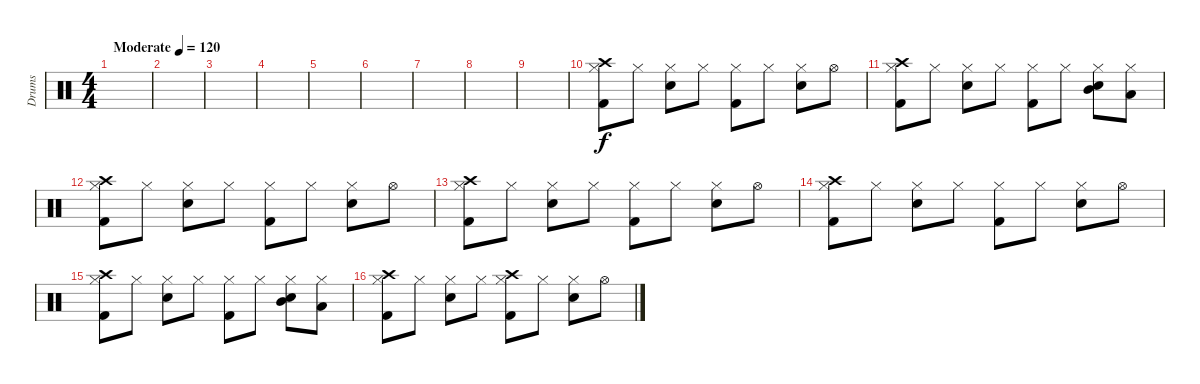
\track ("Drums" "Drums") {instrument percussion}
\staff {score}
\articulation defaults
\ts (4 4)
\tempo (120 "Moderate")
\clef neutral
\ks c
|
|
|
|
|
|
|
|
|
("Kick (hit) 2" "Hi-Hat (closed)" "Crash high (hit)").8 "Hi-Hat (closed)".8 ("Electric Snare (hit)" "Hi-Hat (closed)").8 "Hi-Hat (closed)".8 ("Kick (hit) 2" "Hi-Hat (closed)").8 "Hi-Hat (closed)".8 ("Electric Snare (hit)" "Hi-Hat (closed)").8 "Hi-Hat (open)".8 |
("Kick (hit) 2" "Hi-Hat (closed)" "Crash high (hit)").8 "Hi-Hat (closed)".8 ("Electric Snare (hit)" "Hi-Hat (closed)").8 "Hi-Hat (closed)".8 ("Kick (hit) 2" "Hi-Hat (closed)").8 "Hi-Hat (closed)".8 ("Electric Snare (hit)" "Hi-Hat (closed)" "Mid Tom (hit)").8 ("Hi-Hat (closed)" "Low Tom (hit)").8 |
("Kick (hit) 2" "Hi-Hat (closed)" "Crash high (hit)").8 "Hi-Hat (closed)".8 ("Electric Snare (hit)" "Hi-Hat (closed)").8 "Hi-Hat (closed)".8 ("Kick (hit) 2" "Hi-Hat (closed)").8 "Hi-Hat (closed)".8 ("Electric Snare (hit)" "Hi-Hat (closed)").8 "Hi-Hat (open)".8 |
("Kick (hit) 2" "Hi-Hat (closed)" "Crash high (hit)").8 "Hi-Hat (closed)".8 ("Electric Snare (hit)" "Hi-Hat (closed)").8 "Hi-Hat (closed)".8 ("Kick (hit) 2" "Hi-Hat (closed)").8 "Hi-Hat (closed)".8 ("Electric Snare (hit)" "Hi-Hat (closed)").8 "Hi-Hat (open)".8 |
("Kick (hit) 2" "Hi-Hat (closed)" "Crash high (hit)").8 "Hi-Hat (closed)".8 ("Electric Snare (hit)" "Hi-Hat (closed)").8 "Hi-Hat (closed)".8 ("Kick (hit) 2" "Hi-Hat (closed)").8 "Hi-Hat (closed)".8 ("Electric Snare (hit)" "Hi-Hat (closed)").8 "Hi-Hat (open)".8 |
("Kick (hit) 2" "Hi-Hat (closed)" "Crash high (hit)").8 "Hi-Hat (closed)".8 ("Electric Snare (hit)" "Hi-Hat (closed)").8 "Hi-Hat (closed)".8 ("Kick (hit) 2" "Hi-Hat (closed)").8 "Hi-Hat (closed)".8 ("Electric Snare (hit)" "Hi-Hat (closed)" "Mid Tom (hit)").8 ("Hi-Hat (closed)" "Low Tom (hit)").8 |
("Kick (hit) 2" "Hi-Hat (closed)" "Crash high (hit)").8 "Hi-Hat (closed)".8 ("Electric Snare (hit)" "Hi-Hat (closed)").8 "Hi-Hat (closed)".8 ("Kick (hit) 2" "Hi-Hat (closed)" "Crash high (hit)").8 "Hi-Hat (closed)".8 ("Electric Snare (hit)" "Hi-Hat (closed)").8 "Hi-Hat (open)".8
